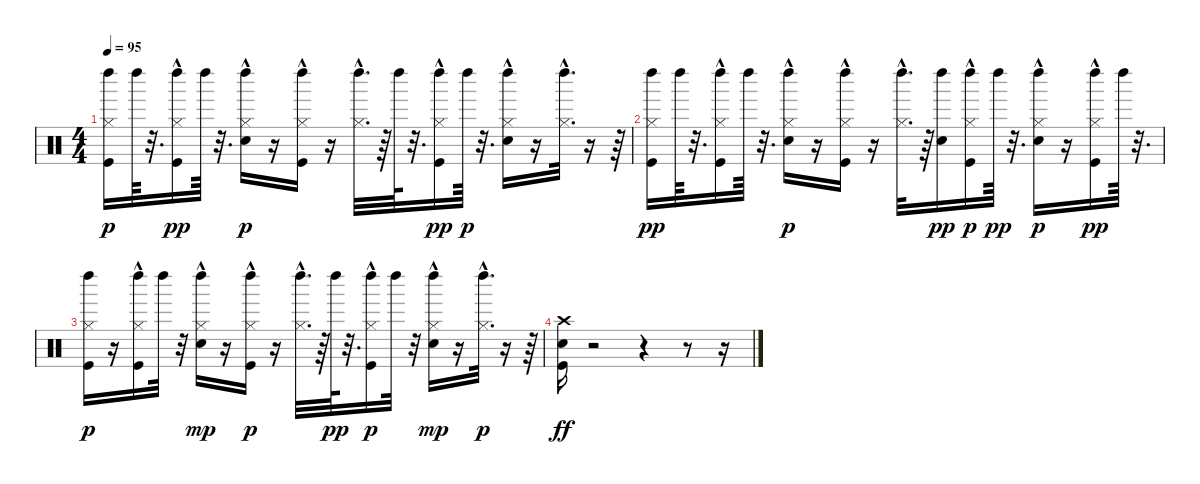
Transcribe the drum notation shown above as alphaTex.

\track "" {instrument percussion}
\staff {score}
\articulation defaults
\ts (4 4)
\tempo 95
\clef neutral
\ks c
("Kick (hit)" "Hi-Hat (closed)" "Left Maraca (hit)").16{dy p} "Left Maraca (hit)".64 r.32{d} ("Kick (hit)" "Hi-Hat (closed)"{hac} "Left Maraca (hit)").16{dy pp} "Left Maraca (hit)".64 r.32{d} ("Electric Snare (hit)" "Hi-Hat (closed)"{hac} "Left Maraca (hit)").16{dy p} r.16 ("Kick (hit)" "Hi-Hat (closed)"{hac} "Left Maraca (hit)").16 r.16 ("Hi-Hat (closed)"{hac} "Left Maraca (hit)").32{d} r.64 "Left Maraca (hit)".64 r.32{d} ("Kick (hit)" "Hi-Hat (closed)"{hac} "Left Maraca (hit)").16{dy pp} "Left Maraca (hit)".64{dy p} r.32{d} ("Electric Snare (hit)" "Hi-Hat (closed)"{hac} "Left Maraca (hit)").16 r.16 ("Hi-Hat (closed)"{hac} "Left Maraca (hit)").32{d} r.16 r.64 |
("Kick (hit)" "Hi-Hat (closed)" "Left Maraca (hit)").16{dy pp} "Left Maraca (hit)".64 r.32{d} ("Kick (hit)" "Hi-Hat (closed)"{hac} "Left Maraca (hit)").16 "Left Maraca (hit)".64 r.32{d} ("Electric Snare (hit)" "Hi-Hat (closed)"{hac} "Left Maraca (hit)").16{dy p} r.16 ("Kick (hit)" "Hi-Hat (closed)"{hac} "Left Maraca (hit)").16 r.16 ("Hi-Hat (closed)"{hac} "Left Maraca (hit)").32{d} r.64 ("Electric Snare (hit)" "Left Maraca (hit)").16{dy pp} ("Kick (hit)" "Hi-Hat (closed)"{hac} "Left Maraca (hit)").16{dy p} "Left Maraca (hit)".64{dy pp} r.32{d} ("Electric Snare (hit)" "Hi-Hat (closed)"{hac} "Left Maraca (hit)").16{dy p} r.16 ("Kick (hit)" "Hi-Hat (closed)"{hac} "Left Maraca (hit)").16{dy pp} "Left Maraca (hit)".64 r.32{d} |
("Kick (hit)" "Hi-Hat (closed)" "Left Maraca (hit)").16{dy p} r.16 ("Kick (hit)" "Hi-Hat (closed)"{hac} "Left Maraca (hit)").16 "Left Maraca (hit)".32 r.32 ("Electric Snare (hit)" "Hi-Hat (closed)"{hac} "Left Maraca (hit)").16{dy mp} r.16 ("Kick (hit)" "Hi-Hat (closed)"{hac} "Left Maraca (hit)").16{dy p} r.16 ("Hi-Hat (closed)"{hac} "Left Maraca (hit)").32{d} r.64 "Left Maraca (hit)".64{dy pp} r.32{d} ("Kick (hit)" "Hi-Hat (closed)"{hac} "Left Maraca (hit)").16{dy p} "Left Maraca (hit)".32 r.32 ("Electric Snare (hit)" "Hi-Hat (closed)"{hac} "Left Maraca (hit)").16{dy mp} r.16 ("Hi-Hat (closed)"{hac} "Left Maraca (hit)").32{d dy p} r.16 r.64 |
("Kick (hit)" "Electric Snare (hit)" "Crash high (hit)").16{dy ff} r.2 r.4 r.8 r.16
